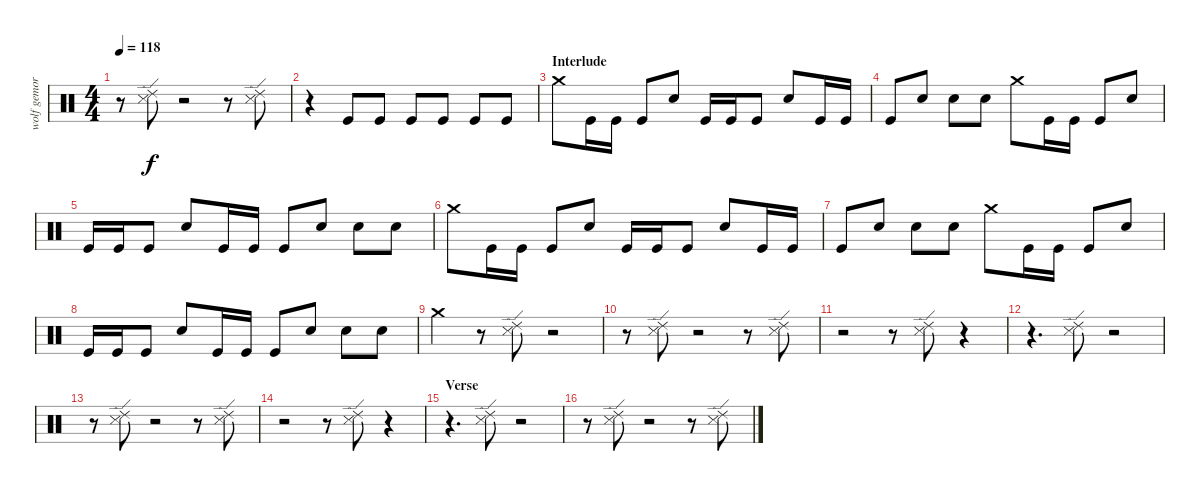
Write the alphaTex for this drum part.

\track ("wolf gemora" "wolf gemor") {instrument percussion}
\staff {score}
\articulation defaults
\ts (4 4)
\tempo 118
\clef neutral
\ks c
r.8{dy f} ("Snare (side stick) 3" "Ride (edge) 2").8 r.2 r.8 ("Snare (side stick) 3" "Ride (edge) 2").8 |
r.4{balance 8} "Kick (hit)".8 "Kick (hit)".8 "Kick (hit)".8 "Kick (hit)".8 "Kick (hit)".8 "Kick (hit)".8 |
\section ("" "Interlude")
"Crash medium (hit)".8 "Kick (hit)".16 "Kick (hit)".16 "Kick (hit)".8 "Electric Snare (hit)".8 "Kick (hit)".16 "Kick (hit)".16 "Kick (hit)".8 "Electric Snare (hit)".8 "Kick (hit)".16 "Kick (hit)".16 |
"Kick (hit)".8 "Electric Snare (hit)".8 "Electric Snare (hit)".8 "Electric Snare (hit)".8 "Crash medium (hit)".8 "Kick (hit)".16 "Kick (hit)".16 "Kick (hit)".8 "Electric Snare (hit)".8 |
"Kick (hit)".16 "Kick (hit)".16 "Kick (hit)".8 "Electric Snare (hit)".8 "Kick (hit)".16 "Kick (hit)".16 "Kick (hit)".8 "Electric Snare (hit)".8 "Electric Snare (hit)".8 "Electric Snare (hit)".8 |
"Crash medium (hit)".8 "Kick (hit)".16 "Kick (hit)".16 "Kick (hit)".8 "Electric Snare (hit)".8 "Kick (hit)".16 "Kick (hit)".16 "Kick (hit)".8 "Electric Snare (hit)".8 "Kick (hit)".16 "Kick (hit)".16 |
"Kick (hit)".8 "Electric Snare (hit)".8 "Electric Snare (hit)".8 "Electric Snare (hit)".8 "Crash medium (hit)".8 "Kick (hit)".16 "Kick (hit)".16 "Kick (hit)".8 "Electric Snare (hit)".8 |
"Kick (hit)".16 "Kick (hit)".16 "Kick (hit)".8 "Electric Snare (hit)".8 "Kick (hit)".16 "Kick (hit)".16 "Kick (hit)".8 "Electric Snare (hit)".8 "Electric Snare (hit)".8 "Electric Snare (hit)".8 |
"Crash medium (hit)".4 r.8 ("Snare (side stick) 3" "Ride (edge) 2").8{balance 14} r.2 |
r.8 ("Snare (side stick) 3" "Ride (edge) 2").8 r.2 r.8 ("Snare (side stick) 3" "Ride (edge) 2").8 |
r.2 r.8 ("Snare (side stick) 3" "Ride (edge) 2").8 r.4 |
r.4{d} ("Snare (side stick) 3" "Ride (edge) 2").8 r.2 |
r.8 ("Snare (side stick) 3" "Ride (edge) 2").8 r.2 r.8 ("Snare (side stick) 3" "Ride (edge) 2").8 |
r.2 r.8 ("Snare (side stick) 3" "Ride (edge) 2").8 r.4 |
\section ("" "Verse")
r.4{d} ("Snare (side stick) 3" "Ride (edge) 2").8 r.2 |
r.8 ("Snare (side stick) 3" "Ride (edge) 2").8 r.2 r.8 ("Snare (side stick) 3" "Ride (edge) 2").8
